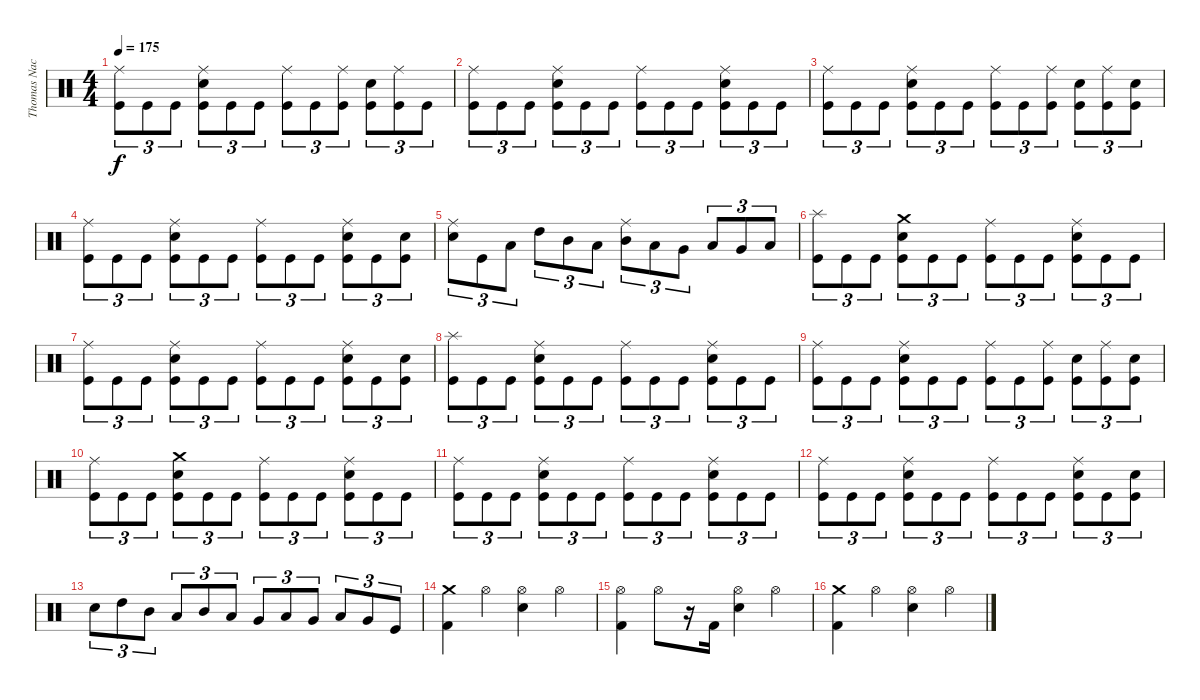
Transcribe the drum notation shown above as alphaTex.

\track ("Thomas Nack" "Thomas Nac") {instrument percussion}
\staff {score}
\articulation defaults
\ts (4 4)
\tempo 175
\clef neutral
\ks c
("Ride (middle)" "Kick (hit)").8{tu (3 2) dy f} "Kick (hit)".8{tu (3 2)} "Kick (hit)".8{tu (3 2)} ("Ride (middle)" "Electric Snare (hit)" "Kick (hit)").8{tu (3 2)} "Kick (hit)".8{tu (3 2)} "Kick (hit)".8{tu (3 2)} ("Ride (middle)" "Kick (hit)").8{tu (3 2)} "Kick (hit)".8{tu (3 2)} ("Ride (middle)" "Kick (hit)").8{tu (3 2)} ("Electric Snare (hit)" "Kick (hit)").8{tu (3 2)} ("Ride (middle)" "Kick (hit)").8{tu (3 2)} "Kick (hit)".8{tu (3 2)} |
("Ride (middle)" "Kick (hit)").8{tu (3 2)} "Kick (hit)".8{tu (3 2)} "Kick (hit)".8{tu (3 2)} ("Ride (middle)" "Electric Snare (hit)" "Kick (hit)").8{tu (3 2)} "Kick (hit)".8{tu (3 2)} "Kick (hit)".8{tu (3 2)} ("Ride (middle)" "Kick (hit)").8{tu (3 2)} "Kick (hit)".8{tu (3 2)} "Kick (hit)".8{tu (3 2)} ("Ride (middle)" "Electric Snare (hit)" "Kick (hit)").8{tu (3 2)} "Kick (hit)".8{tu (3 2)} "Kick (hit)".8{tu (3 2)} |
("Ride (middle)" "Kick (hit)").8{tu (3 2)} "Kick (hit)".8{tu (3 2)} "Kick (hit)".8{tu (3 2)} ("Ride (middle)" "Electric Snare (hit)" "Kick (hit)").8{tu (3 2)} "Kick (hit)".8{tu (3 2)} "Kick (hit)".8{tu (3 2)} ("Ride (middle)" "Kick (hit)").8{tu (3 2)} "Kick (hit)".8{tu (3 2)} ("Ride (middle)" "Kick (hit)").8{tu (3 2)} ("Electric Snare (hit)" "Kick (hit)").8{tu (3 2)} ("Ride (middle)" "Kick (hit)").8{tu (3 2)} ("Electric Snare (hit)" "Kick (hit)").8{tu (3 2)} |
("Ride (middle)" "Kick (hit)").8{tu (3 2)} "Kick (hit)".8{tu (3 2)} "Kick (hit)".8{tu (3 2)} ("Ride (middle)" "Electric Snare (hit)" "Kick (hit)").8{tu (3 2)} "Kick (hit)".8{tu (3 2)} "Kick (hit)".8{tu (3 2)} ("Ride (middle)" "Kick (hit)").8{tu (3 2)} "Kick (hit)".8{tu (3 2)} "Kick (hit)".8{tu (3 2)} ("Ride (middle)" "Electric Snare (hit)" "Kick (hit)").8{tu (3 2)} "Kick (hit)".8{tu (3 2)} ("Electric Snare (hit)" "Kick (hit)").8{tu (3 2)} |
("Ride (middle)" "Electric Snare (hit)").8{tu (3 2)} "Kick (hit)".8{tu (3 2)} "Low Tom (hit)".8{tu (3 2)} "High Tom (hit)".8{tu (3 2)} "Mid Tom (hit)".8{tu (3 2)} "Low Tom (hit)".8{tu (3 2)} ("Ride (middle)" "Mid Tom (hit)").8{tu (3 2)} "Low Tom (hit)".8{tu (3 2)} "Very Low Tom (hit)".8{tu (3 2)} "Low Tom (hit)".8{tu (3 2)} "Very Low Tom (hit)".8{tu (3 2)} "Low Floor Tom (hit)".8{tu (3 2)} |
("Splash (hit)" "Kick (hit)").8{tu (3 2)} "Kick (hit)".8{tu (3 2)} "Kick (hit)".8{tu (3 2)} ("Crash medium (hit)" "Electric Snare (hit)" "Kick (hit)").8{tu (3 2)} "Kick (hit)".8{tu (3 2)} "Kick (hit)".8{tu (3 2)} ("Ride (middle)" "Kick (hit)").8{tu (3 2)} "Kick (hit)".8{tu (3 2)} "Kick (hit)".8{tu (3 2)} ("Ride (middle)" "Electric Snare (hit)" "Kick (hit)").8{tu (3 2)} "Kick (hit)".8{tu (3 2)} "Kick (hit)".8{tu (3 2)} |
("Ride (middle)" "Kick (hit)").8{tu (3 2)} "Kick (hit)".8{tu (3 2)} "Kick (hit)".8{tu (3 2)} ("Ride (middle)" "Electric Snare (hit)" "Kick (hit)").8{tu (3 2)} "Kick (hit)".8{tu (3 2)} "Kick (hit)".8{tu (3 2)} ("Ride (middle)" "Kick (hit)").8{tu (3 2)} "Kick (hit)".8{tu (3 2)} "Kick (hit)".8{tu (3 2)} ("Ride (middle)" "Electric Snare (hit)" "Kick (hit)").8{tu (3 2)} "Kick (hit)".8{tu (3 2)} ("Electric Snare (hit)" "Kick (hit)").8{tu (3 2)} |
("Splash (hit)" "Kick (hit)").8{tu (3 2)} "Kick (hit)".8{tu (3 2)} "Kick (hit)".8{tu (3 2)} ("Ride (middle)" "Electric Snare (hit)" "Kick (hit)").8{tu (3 2)} "Kick (hit)".8{tu (3 2)} "Kick (hit)".8{tu (3 2)} ("Ride (middle)" "Kick (hit)").8{tu (3 2)} "Kick (hit)".8{tu (3 2)} "Kick (hit)".8{tu (3 2)} ("Ride (middle)" "Electric Snare (hit)" "Kick (hit)").8{tu (3 2)} "Kick (hit)".8{tu (3 2)} "Kick (hit)".8{tu (3 2)} |
("Ride (middle)" "Kick (hit)").8{tu (3 2)} "Kick (hit)".8{tu (3 2)} "Kick (hit)".8{tu (3 2)} ("Ride (middle)" "Electric Snare (hit)" "Kick (hit)").8{tu (3 2)} "Kick (hit)".8{tu (3 2)} "Kick (hit)".8{tu (3 2)} ("Ride (middle)" "Kick (hit)").8{tu (3 2)} "Kick (hit)".8{tu (3 2)} ("Ride (middle)" "Kick (hit)").8{tu (3 2)} ("Electric Snare (hit)" "Kick (hit)").8{tu (3 2)} ("Ride (middle)" "Kick (hit)").8{tu (3 2)} ("Electric Snare (hit)" "Kick (hit)").8{tu (3 2)} |
("Ride (middle)" "Kick (hit)").8{tu (3 2)} "Kick (hit)".8{tu (3 2)} "Kick (hit)".8{tu (3 2)} ("Crash medium (hit)" "Electric Snare (hit)" "Kick (hit)").8{tu (3 2)} "Kick (hit)".8{tu (3 2)} "Kick (hit)".8{tu (3 2)} ("Ride (middle)" "Kick (hit)").8{tu (3 2)} "Kick (hit)".8{tu (3 2)} "Kick (hit)".8{tu (3 2)} ("Ride (middle)" "Electric Snare (hit)" "Kick (hit)").8{tu (3 2)} "Kick (hit)".8{tu (3 2)} "Kick (hit)".8{tu (3 2)} |
("Ride (middle)" "Kick (hit)").8{tu (3 2)} "Kick (hit)".8{tu (3 2)} "Kick (hit)".8{tu (3 2)} ("Ride (middle)" "Electric Snare (hit)" "Kick (hit)").8{tu (3 2)} "Kick (hit)".8{tu (3 2)} "Kick (hit)".8{tu (3 2)} ("Ride (middle)" "Kick (hit)").8{tu (3 2)} "Kick (hit)".8{tu (3 2)} "Kick (hit)".8{tu (3 2)} ("Ride (middle)" "Electric Snare (hit)" "Kick (hit)").8{tu (3 2)} "Kick (hit)".8{tu (3 2)} "Kick (hit)".8{tu (3 2)} |
("Ride (middle)" "Kick (hit)").8{tu (3 2)} "Kick (hit)".8{tu (3 2)} "Kick (hit)".8{tu (3 2)} ("Ride (middle)" "Electric Snare (hit)" "Kick (hit)").8{tu (3 2)} "Kick (hit)".8{tu (3 2)} "Kick (hit)".8{tu (3 2)} ("Ride (middle)" "Kick (hit)").8{tu (3 2)} "Kick (hit)".8{tu (3 2)} "Kick (hit)".8{tu (3 2)} ("Ride (middle)" "Electric Snare (hit)" "Kick (hit)").8{tu (3 2)} "Kick (hit)".8{tu (3 2)} ("Electric Snare (hit)" "Kick (hit)").8{tu (3 2)} |
"Electric Snare (hit)".8{tu (3 2)} "High Tom (hit)".8{tu (3 2)} "Mid Tom (hit)".8{tu (3 2)} "Low Tom (hit)".8{tu (3 2)} "Mid Tom (hit)".8{tu (3 2)} "Low Tom (hit)".8{tu (3 2)} "Very Low Tom (hit)".8{tu (3 2)} "Low Tom (hit)".8{tu (3 2)} "Very Low Tom (hit)".8{tu (3 2)} "Low Floor Tom (hit)".8{tu (3 2)} "Very Low Tom (hit)".8{tu (3 2)} "Kick (hit)".8{tu (3 2)} |
("Crash medium (hit)" "Kick (hit) 2").4 "Hi-Hat (open)".4 ("Hi-Hat (open)" "Electric Snare (hit)").4 "Hi-Hat (open)".4 |
("Hi-Hat (open)" "Kick (hit) 2").4 "Hi-Hat (open)".8 r.16 "Kick (hit) 2".16 ("Hi-Hat (open)" "Electric Snare (hit)").4 "Hi-Hat (open)".4 |
("Crash medium (hit)" "Kick (hit) 2").4 "Hi-Hat (open)".4 ("Hi-Hat (open)" "Electric Snare (hit)").4 "Hi-Hat (open)".4
